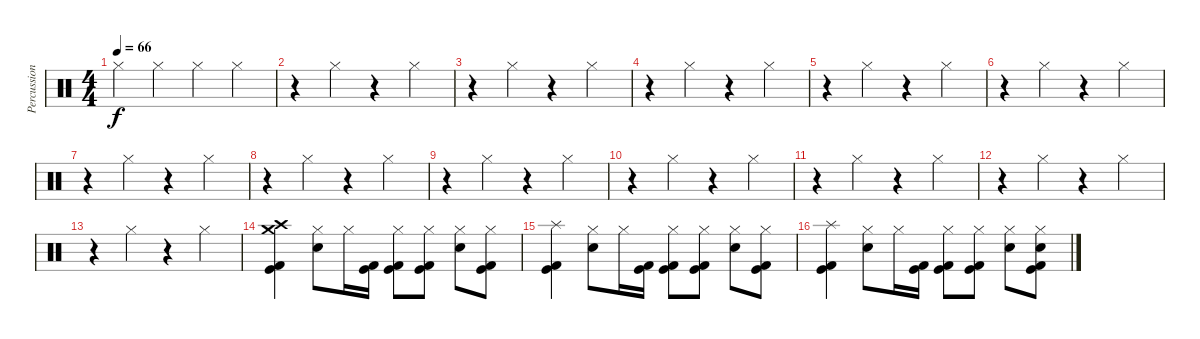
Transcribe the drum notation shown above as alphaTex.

\track ("Percussion" "Percussion") {instrument percussion}
\staff {score}
\articulation defaults
\ts (4 4)
\tempo 66
\clef neutral
\ks c "Hi-Hat (closed)".4{dy f} "Hi-Hat (closed)".4 "Hi-Hat (closed)".4 "Hi-Hat (closed)".4
|
r.4 "Hi-Hat (closed)".4 r.4 "Hi-Hat (closed)".4 |
r.4 "Hi-Hat (closed)".4 r.4 "Hi-Hat (closed)".4 |
r.4 "Hi-Hat (closed)".4 r.4 "Hi-Hat (closed)".4 |
r.4 "Hi-Hat (closed)".4 r.4 "Hi-Hat (closed)".4 |
r.4 "Hi-Hat (closed)".4 r.4 "Hi-Hat (closed)".4 |
r.4 "Hi-Hat (closed)".4 r.4 "Hi-Hat (closed)".4 |
r.4 "Hi-Hat (closed)".4 r.4 "Hi-Hat (closed)".4 |
r.4 "Hi-Hat (closed)".4 r.4 "Hi-Hat (closed)".4 |
r.4 "Hi-Hat (closed)".4 r.4 "Hi-Hat (closed)".4 |
r.4 "Hi-Hat (closed)".4 r.4 "Hi-Hat (closed)".4 |
r.4 "Hi-Hat (closed)".4 r.4 "Hi-Hat (closed)".4 |
r.4 "Hi-Hat (closed)".4 r.4 "Hi-Hat (closed)".4 |
("Crash medium (hit)" "Crash high (hit)" "Kick (hit) 2" "Kick (hit)").4 ("Hi-Hat (closed)" "Electric Snare (hit)").8 "Hi-Hat (closed)".16 ("Kick (hit) 2" "Kick (hit)").16 ("Hi-Hat (closed)" "Kick (hit) 2" "Kick (hit)").8 ("Hi-Hat (closed)" "Kick (hit)" "Kick (hit) 2").8 ("Hi-Hat (closed)" "Electric Snare (hit)").8 ("Hi-Hat (closed)" "Kick (hit) 2" "Kick (hit)").8 |
("Splash (hit)" "Kick (hit) 2" "Kick (hit)").4 ("Hi-Hat (closed)" "Electric Snare (hit)").8 "Hi-Hat (closed)".16 ("Kick (hit) 2" "Kick (hit)").16 ("Hi-Hat (closed)" "Kick (hit) 2" "Kick (hit)").8 ("Hi-Hat (closed)" "Kick (hit)" "Kick (hit) 2").8 ("Hi-Hat (closed)" "Electric Snare (hit)").8 ("Hi-Hat (closed)" "Kick (hit) 2" "Kick (hit)").8 |
("Splash (hit)" "Kick (hit) 2" "Kick (hit)").4 ("Hi-Hat (closed)" "Electric Snare (hit)").8 "Hi-Hat (closed)".16 ("Kick (hit) 2" "Kick (hit)").16 ("Hi-Hat (closed)" "Kick (hit) 2" "Kick (hit)").8 ("Hi-Hat (closed)" "Kick (hit)" "Kick (hit) 2").8 ("Hi-Hat (closed)" "Electric Snare (hit)").8 ("Hi-Hat (closed)" "Electric Snare (hit)" "Kick (hit) 2" "Kick (hit)").8
